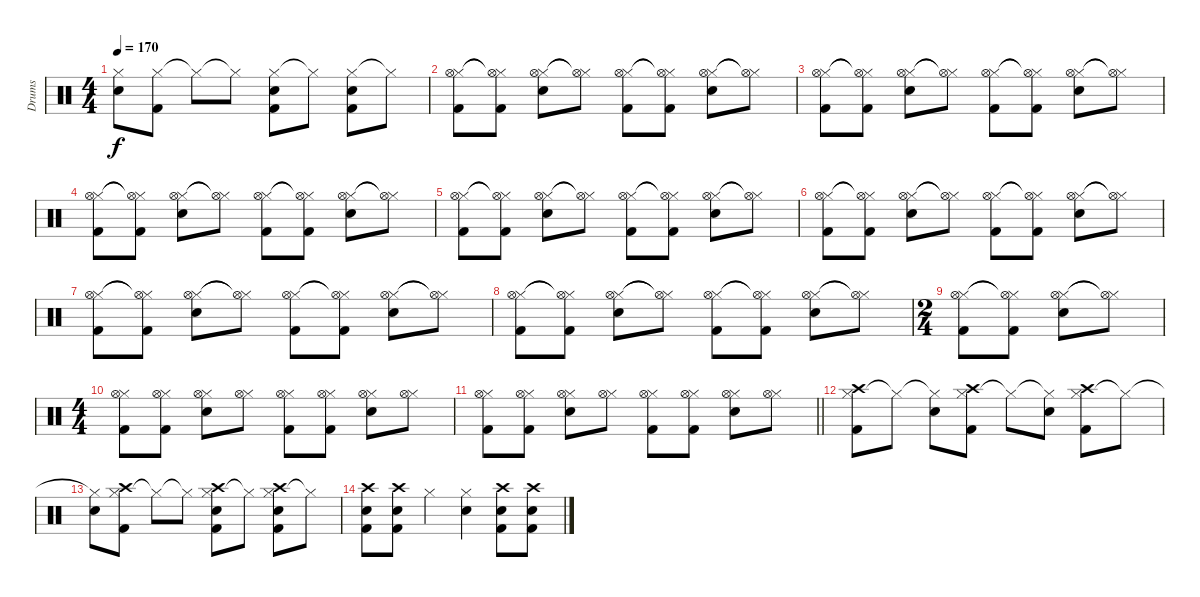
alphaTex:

\track ("Drums" "Drums") {instrument percussion}
\staff {score}
\articulation defaults
\ts (4 4)
\tempo 170
\clef neutral
\ks c
("Hi-Hat (closed)"{t} "Snare (hit) 2").8{dy f} ("Hi-Hat (closed)" "Kick (hit) 2").8 "Hi-Hat (closed)"{t}.8 "Hi-Hat (closed)"{t}.8 ("Hi-Hat (closed)" "Snare (hit) 2" "Kick (hit) 2").8 "Hi-Hat (closed)"{t}.8 ("Hi-Hat (closed)" "Snare (hit) 2" "Kick (hit) 2").8 "Hi-Hat (closed)"{t}.8 |
("Hi-Hat (closed)" "Hi-Hat (open)" "Kick (hit) 2").8 ("Hi-Hat (closed)"{t} "Hi-Hat (open)"{t} "Kick (hit) 2").8 ("Hi-Hat (closed)" "Hi-Hat (open)" "Snare (hit) 2").8 ("Hi-Hat (closed)"{t} "Hi-Hat (open)"{t}).8 ("Hi-Hat (closed)" "Hi-Hat (open)" "Kick (hit) 2").8 ("Hi-Hat (closed)"{t} "Hi-Hat (open)"{t} "Kick (hit) 2").8 ("Hi-Hat (closed)" "Hi-Hat (open)" "Snare (hit) 2").8 ("Hi-Hat (closed)"{t} "Hi-Hat (open)"{t}).8 |
("Hi-Hat (closed)" "Hi-Hat (open)" "Kick (hit) 2").8 ("Hi-Hat (closed)"{t} "Hi-Hat (open)"{t} "Kick (hit) 2").8 ("Hi-Hat (closed)" "Hi-Hat (open)" "Snare (hit) 2").8 ("Hi-Hat (closed)"{t} "Hi-Hat (open)"{t}).8 ("Hi-Hat (closed)" "Hi-Hat (open)" "Kick (hit) 2").8 ("Hi-Hat (closed)"{t} "Hi-Hat (open)"{t} "Kick (hit) 2").8 ("Hi-Hat (closed)" "Hi-Hat (open)" "Snare (hit) 2").8 ("Hi-Hat (closed)"{t} "Hi-Hat (open)"{t}).8 |
("Hi-Hat (closed)" "Hi-Hat (open)" "Kick (hit) 2").8 ("Hi-Hat (closed)"{t} "Hi-Hat (open)"{t} "Kick (hit) 2").8 ("Hi-Hat (closed)" "Hi-Hat (open)" "Snare (hit) 2").8 ("Hi-Hat (closed)"{t} "Hi-Hat (open)"{t}).8 ("Hi-Hat (closed)" "Hi-Hat (open)" "Kick (hit) 2").8 ("Hi-Hat (closed)"{t} "Hi-Hat (open)"{t} "Kick (hit) 2").8 ("Hi-Hat (closed)" "Hi-Hat (open)" "Snare (hit) 2").8 ("Hi-Hat (closed)"{t} "Hi-Hat (open)"{t}).8 |
("Hi-Hat (closed)" "Hi-Hat (open)" "Kick (hit) 2").8 ("Hi-Hat (closed)"{t} "Hi-Hat (open)"{t} "Kick (hit) 2").8 ("Hi-Hat (closed)" "Hi-Hat (open)" "Snare (hit) 2").8 ("Hi-Hat (closed)"{t} "Hi-Hat (open)"{t}).8 ("Hi-Hat (closed)" "Hi-Hat (open)" "Kick (hit) 2").8 ("Hi-Hat (closed)"{t} "Hi-Hat (open)"{t} "Kick (hit) 2").8 ("Hi-Hat (closed)" "Hi-Hat (open)" "Snare (hit) 2").8 ("Hi-Hat (closed)"{t} "Hi-Hat (open)"{t}).8 |
("Hi-Hat (closed)" "Hi-Hat (open)" "Kick (hit) 2").8 ("Hi-Hat (closed)"{t} "Hi-Hat (open)"{t} "Kick (hit) 2").8 ("Hi-Hat (closed)" "Hi-Hat (open)" "Snare (hit) 2").8 ("Hi-Hat (closed)"{t} "Hi-Hat (open)"{t}).8 ("Hi-Hat (closed)" "Hi-Hat (open)" "Kick (hit) 2").8 ("Hi-Hat (closed)"{t} "Hi-Hat (open)"{t} "Kick (hit) 2").8 ("Hi-Hat (closed)" "Hi-Hat (open)" "Snare (hit) 2").8 ("Hi-Hat (closed)"{t} "Hi-Hat (open)"{t}).8 |
("Hi-Hat (closed)" "Hi-Hat (open)" "Kick (hit) 2").8 ("Hi-Hat (closed)"{t} "Hi-Hat (open)"{t} "Kick (hit) 2").8 ("Hi-Hat (closed)" "Hi-Hat (open)" "Snare (hit) 2").8 ("Hi-Hat (closed)"{t} "Hi-Hat (open)"{t}).8 ("Hi-Hat (closed)" "Hi-Hat (open)" "Kick (hit) 2").8 ("Hi-Hat (closed)"{t} "Hi-Hat (open)"{t} "Kick (hit) 2").8 ("Hi-Hat (closed)" "Hi-Hat (open)" "Snare (hit) 2").8 ("Hi-Hat (closed)"{t} "Hi-Hat (open)"{t}).8 |
("Hi-Hat (closed)" "Hi-Hat (open)" "Kick (hit) 2").8 ("Hi-Hat (closed)"{t} "Hi-Hat (open)"{t} "Kick (hit) 2").8 ("Hi-Hat (closed)" "Hi-Hat (open)" "Snare (hit) 2").8 ("Hi-Hat (closed)"{t} "Hi-Hat (open)"{t}).8 ("Hi-Hat (closed)" "Hi-Hat (open)" "Kick (hit) 2").8 ("Hi-Hat (closed)"{t} "Hi-Hat (open)"{t} "Kick (hit) 2").8 ("Hi-Hat (closed)" "Hi-Hat (open)" "Snare (hit) 2").8 ("Hi-Hat (closed)"{t} "Hi-Hat (open)"{t}).8 |
\ts (2 4)
("Hi-Hat (closed)" "Hi-Hat (open)" "Kick (hit) 2").8 ("Hi-Hat (closed)"{t} "Hi-Hat (open)"{t} "Kick (hit) 2").8 ("Hi-Hat (closed)" "Hi-Hat (open)" "Snare (hit) 2").8 ("Hi-Hat (closed)"{t} "Hi-Hat (open)"{t}).8 |
\ts (4 4)
("Hi-Hat (closed)" "Hi-Hat (open)" "Kick (hit) 2").8 ("Hi-Hat (closed)" "Hi-Hat (open)" "Kick (hit) 2").8 ("Hi-Hat (closed)" "Hi-Hat (open)" "Snare (hit) 2").8 ("Hi-Hat (closed)" "Hi-Hat (open)").8 ("Hi-Hat (closed)" "Hi-Hat (open)" "Kick (hit) 2").8 ("Hi-Hat (closed)" "Hi-Hat (open)" "Kick (hit) 2").8 ("Hi-Hat (closed)" "Hi-Hat (open)" "Snare (hit) 2").8 ("Hi-Hat (closed)" "Hi-Hat (open)").8 |
\barLineRight lightlight
("Hi-Hat (closed)" "Hi-Hat (open)" "Kick (hit) 2").8 ("Hi-Hat (closed)" "Hi-Hat (open)" "Kick (hit) 2").8 ("Hi-Hat (closed)" "Hi-Hat (open)" "Snare (hit) 2").8 ("Hi-Hat (closed)" "Hi-Hat (open)").8 ("Hi-Hat (closed)" "Hi-Hat (open)" "Kick (hit) 2").8 ("Hi-Hat (closed)" "Hi-Hat (open)" "Kick (hit) 2").8 ("Hi-Hat (closed)" "Hi-Hat (open)" "Snare (hit) 2").8 ("Hi-Hat (closed)" "Hi-Hat (open)").8 |
("Hi-Hat (closed)" "Crash high (hit)" "Kick (hit) 2").8 "Hi-Hat (closed)"{t}.8 ("Hi-Hat (closed)"{t} "Snare (hit) 2").8 ("Hi-Hat (closed)" "Crash high (hit)" "Kick (hit) 2").8 "Hi-Hat (closed)"{t}.8 ("Hi-Hat (closed)"{t} "Snare (hit) 2").8 ("Hi-Hat (closed)" "Crash high (hit)" "Kick (hit) 2").8 "Hi-Hat (closed)"{t}.8 |
("Hi-Hat (closed)"{t} "Snare (hit) 2").8 ("Hi-Hat (closed)" "Crash high (hit)" "Kick (hit) 2").8 "Hi-Hat (closed)"{t}.8 "Hi-Hat (closed)"{t}.8 ("Hi-Hat (closed)" "Crash high (hit)" "Snare (hit) 2" "Kick (hit) 2").8 "Hi-Hat (closed)"{t}.8 ("Hi-Hat (closed)" "Crash high (hit)" "Snare (hit) 2" "Kick (hit) 2").8 "Hi-Hat (closed)"{t}.8 |
("Crash high (hit)" "Snare (hit) 2" "Kick (hit) 2").8 ("Crash high (hit)" "Snare (hit) 2" "Kick (hit) 2").8 "Hi-Hat (closed)".4 ("Hi-Hat (closed)" "Snare (hit) 2").4 ("Crash high (hit)" "Snare (hit) 2" "Kick (hit) 2").8 ("Crash high (hit)" "Snare (hit) 2" "Kick (hit) 2").8
